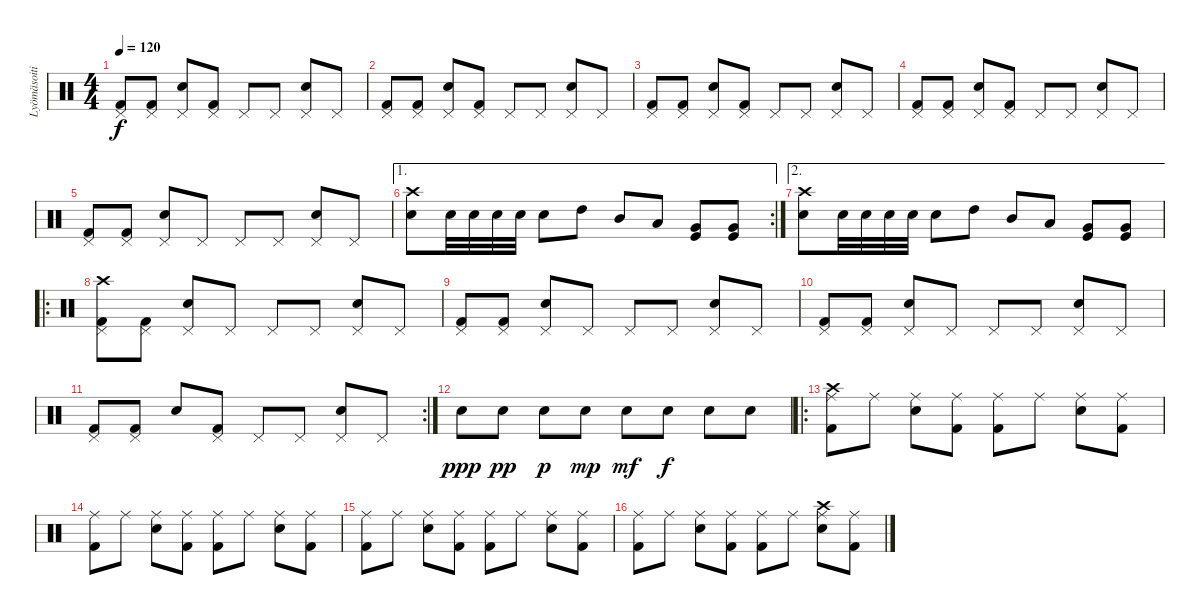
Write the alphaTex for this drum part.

\track ("Lyömäsoitin" "Lyömäsoiti") {instrument percussion}
\staff {score}
\articulation defaults
\ts (4 4)
\tempo 120
\clef neutral
\ks c
("Pedal Hi-Hat (hit)" "Kick (hit) 2").8{dy f} ("Pedal Hi-Hat (hit)" "Kick (hit) 2").8 ("Pedal Hi-Hat (hit)" "Electric Snare (hit)").8 ("Pedal Hi-Hat (hit)" "Kick (hit) 2").8 "Pedal Hi-Hat (hit)".8 "Pedal Hi-Hat (hit)".8 ("Pedal Hi-Hat (hit)" "Electric Snare (hit)").8 "Pedal Hi-Hat (hit)".8 |
("Pedal Hi-Hat (hit)" "Kick (hit) 2").8 ("Pedal Hi-Hat (hit)" "Kick (hit) 2").8 ("Pedal Hi-Hat (hit)" "Electric Snare (hit)").8 ("Pedal Hi-Hat (hit)" "Kick (hit) 2").8 "Pedal Hi-Hat (hit)".8 "Pedal Hi-Hat (hit)".8 ("Pedal Hi-Hat (hit)" "Electric Snare (hit)").8 "Pedal Hi-Hat (hit)".8 |
("Pedal Hi-Hat (hit)" "Kick (hit) 2").8 ("Pedal Hi-Hat (hit)" "Kick (hit) 2").8 ("Pedal Hi-Hat (hit)" "Electric Snare (hit)").8 ("Pedal Hi-Hat (hit)" "Kick (hit) 2").8 "Pedal Hi-Hat (hit)".8 "Pedal Hi-Hat (hit)".8 ("Pedal Hi-Hat (hit)" "Electric Snare (hit)").8 "Pedal Hi-Hat (hit)".8 |
("Pedal Hi-Hat (hit)" "Kick (hit) 2").8 ("Pedal Hi-Hat (hit)" "Kick (hit) 2").8 ("Pedal Hi-Hat (hit)" "Electric Snare (hit)").8 ("Pedal Hi-Hat (hit)" "Kick (hit) 2").8 "Pedal Hi-Hat (hit)".8 "Pedal Hi-Hat (hit)".8 ("Pedal Hi-Hat (hit)" "Electric Snare (hit)").8 "Pedal Hi-Hat (hit)".8 |
("Pedal Hi-Hat (hit)" "Kick (hit) 2").8 ("Pedal Hi-Hat (hit)" "Kick (hit) 2").8 ("Pedal Hi-Hat (hit)" "Electric Snare (hit)").8 "Pedal Hi-Hat (hit)".8 "Pedal Hi-Hat (hit)".8 "Pedal Hi-Hat (hit)".8 ("Pedal Hi-Hat (hit)" "Electric Snare (hit)").8 "Pedal Hi-Hat (hit)".8 |
\ae 1
\rc 2
("Crash high (hit)" "Snare (hit) 2").8 "Snare (hit) 2".32 "Snare (hit) 2".32 "Snare (hit) 2".32 "Snare (hit) 2".32 "Snare (hit) 2".8 "High Tom (hit)".8 "Mid Tom (hit)".8 "Low Tom (hit)".8 ("Very Low Tom (hit)" "Kick (hit)").8 ("Very Low Tom (hit)" "Kick (hit)").8 |
\ae 2
("Crash high (hit)" "Snare (hit) 2").8 "Snare (hit) 2".32 "Snare (hit) 2".32 "Snare (hit) 2".32 "Snare (hit) 2".32 "Snare (hit) 2".8 "High Tom (hit)".8 "Mid Tom (hit)".8 "Low Tom (hit)".8 ("Very Low Tom (hit)" "Kick (hit)").8 ("Very Low Tom (hit)" "Kick (hit)").8 |
\ro
("Crash high (hit)" "Pedal Hi-Hat (hit)" "Kick (hit) 2").8 ("Pedal Hi-Hat (hit)" "Kick (hit) 2").8 ("Pedal Hi-Hat (hit)" "Electric Snare (hit)").8 "Pedal Hi-Hat (hit)".8 "Pedal Hi-Hat (hit)".8 "Pedal Hi-Hat (hit)".8 ("Pedal Hi-Hat (hit)" "Electric Snare (hit)").8 "Pedal Hi-Hat (hit)".8 |
("Pedal Hi-Hat (hit)" "Kick (hit) 2").8 ("Pedal Hi-Hat (hit)" "Kick (hit) 2").8 ("Pedal Hi-Hat (hit)" "Electric Snare (hit)").8 "Pedal Hi-Hat (hit)".8 "Pedal Hi-Hat (hit)".8 "Pedal Hi-Hat (hit)".8 ("Pedal Hi-Hat (hit)" "Electric Snare (hit)").8 "Pedal Hi-Hat (hit)".8 |
("Pedal Hi-Hat (hit)" "Kick (hit) 2").8 ("Pedal Hi-Hat (hit)" "Kick (hit) 2").8 ("Pedal Hi-Hat (hit)" "Electric Snare (hit)").8 "Pedal Hi-Hat (hit)".8 "Pedal Hi-Hat (hit)".8 "Pedal Hi-Hat (hit)".8 ("Pedal Hi-Hat (hit)" "Electric Snare (hit)").8 "Pedal Hi-Hat (hit)".8 |
\rc 2
("Pedal Hi-Hat (hit)" "Kick (hit) 2").8 ("Pedal Hi-Hat (hit)" "Kick (hit) 2").8 "Electric Snare (hit)".8 ("Pedal Hi-Hat (hit)" "Kick (hit) 2").8 "Pedal Hi-Hat (hit)".8 "Pedal Hi-Hat (hit)".8 ("Pedal Hi-Hat (hit)" "Electric Snare (hit)").8 "Pedal Hi-Hat (hit)".8 |
"Electric Snare (hit)".8{dy ppp} "Electric Snare (hit)".8{dy pp} "Electric Snare (hit)".8{dy p} "Electric Snare (hit)".8{dy mp} "Electric Snare (hit)".8{dy mf} "Electric Snare (hit)".8{dy f} "Electric Snare (hit)".8 "Electric Snare (hit)".8 |
\ro
("Crash high (hit)" "Ride (middle)" "Kick (hit) 2").8 "Ride (middle)".8 ("Ride (middle)" "Electric Snare (hit)").8 ("Ride (middle)" "Kick (hit) 2").8 ("Ride (middle)" "Kick (hit) 2").8 "Ride (middle)".8 ("Ride (middle)" "Electric Snare (hit)").8 ("Ride (middle)" "Kick (hit) 2").8 |
("Ride (middle)" "Kick (hit) 2").8 "Ride (middle)".8 ("Ride (middle)" "Electric Snare (hit)").8 ("Ride (middle)" "Kick (hit) 2").8 ("Ride (middle)" "Kick (hit) 2").8 "Ride (middle)".8 ("Ride (middle)" "Electric Snare (hit)").8 ("Ride (middle)" "Kick (hit) 2").8 |
("Ride (middle)" "Kick (hit) 2").8 "Ride (middle)".8 ("Ride (middle)" "Electric Snare (hit)").8 ("Ride (middle)" "Kick (hit) 2").8 ("Ride (middle)" "Kick (hit) 2").8 "Ride (middle)".8 ("Ride (middle)" "Electric Snare (hit)").8 ("Ride (middle)" "Kick (hit) 2").8 |
("Ride (middle)" "Kick (hit) 2").8 "Ride (middle)".8 ("Ride (middle)" "Electric Snare (hit)").8 ("Ride (middle)" "Kick (hit) 2").8 ("Ride (middle)" "Kick (hit) 2").8 "Ride (middle)".8 ("Crash high (hit)" "Ride (middle)" "Electric Snare (hit)").8 ("Ride (middle)" "Kick (hit) 2").8
